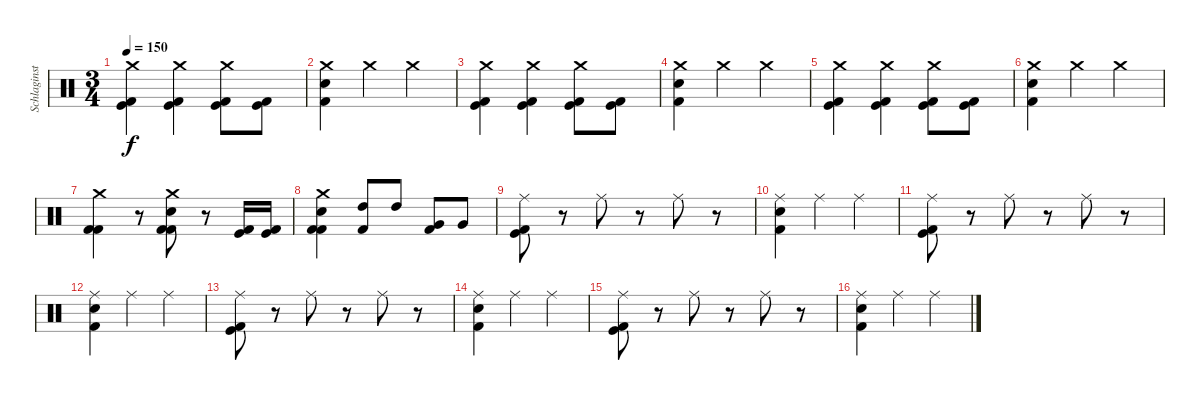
\track ("Schlaginstrumente - Auswahl" "Schlaginst") {instrument percussion}
\staff {score}
\articulation defaults
\ts (3 4)
\tempo 150
\clef neutral
\ks c
("Crash medium (hit)" "Kick (hit)" "Kick (hit) 2").4{dy f} ("Crash medium (hit)" "Kick (hit)" "Kick (hit) 2").4 ("Crash medium (hit)" "Kick (hit)" "Kick (hit) 2").8 ("Kick (hit)" "Kick (hit) 2").8 |
("Crash medium (hit)" "Electric Snare (hit)" "Kick (hit) 2").4 "Crash medium (hit)".4 "Crash medium (hit)".4 |
("Crash medium (hit)" "Kick (hit)" "Kick (hit) 2").4 ("Crash medium (hit)" "Kick (hit)" "Kick (hit) 2").4 ("Crash medium (hit)" "Kick (hit)" "Kick (hit) 2").8 ("Kick (hit)" "Kick (hit) 2").8 |
("Crash medium (hit)" "Electric Snare (hit)" "Kick (hit) 2").4 "Crash medium (hit)".4 "Crash medium (hit)".4 |
("Crash medium (hit)" "Kick (hit)" "Kick (hit) 2").4 ("Crash medium (hit)" "Kick (hit)" "Kick (hit) 2").4 ("Crash medium (hit)" "Kick (hit)" "Kick (hit) 2").8 ("Kick (hit)" "Kick (hit) 2").8 |
("Crash medium (hit)" "Electric Snare (hit)" "Kick (hit) 2").4 "Crash medium (hit)".4 "Crash medium (hit)".4 |
("Crash medium (hit)" "Kick (hit) 2" "Kick (hit) 2").4 r.8 ("Crash medium (hit)" "Electric Snare (hit)" "Kick (hit) 2" "Kick (hit) 2").8 r.8 ("Kick (hit)" "Kick (hit) 2").16 ("Kick (hit)" "Kick (hit) 2").16 |
("Crash medium (hit)" "Electric Snare (hit)" "Kick (hit) 2" "Kick (hit) 2").4 ("High Tom (hit)" "Kick (hit) 2").8 "High Tom (hit)".8 ("Very Low Tom (hit)" "Kick (hit) 2").8 "Very Low Tom (hit)".8 |
("Ride (middle)" "Kick (hit)" "Kick (hit) 2").8 r.8 "Ride (middle)".8 r.8 "Ride (middle)".8 r.8 |
("Ride (middle)" "Electric Snare (hit)" "Kick (hit) 2").4 "Ride (middle)".4 "Ride (middle)".4 |
("Ride (middle)" "Kick (hit)" "Kick (hit) 2").8 r.8 "Ride (middle)".8 r.8 "Ride (middle)".8 r.8 |
("Ride (middle)" "Electric Snare (hit)" "Kick (hit) 2").4 "Ride (middle)".4 "Ride (middle)".4 |
("Ride (middle)" "Kick (hit)" "Kick (hit) 2").8 r.8 "Ride (middle)".8 r.8 "Ride (middle)".8 r.8 |
("Ride (middle)" "Electric Snare (hit)" "Kick (hit) 2").4 "Ride (middle)".4 "Ride (middle)".4 |
("Ride (middle)" "Kick (hit)" "Kick (hit) 2").8 r.8 "Ride (middle)".8 r.8 "Ride (middle)".8 r.8 |
("Ride (middle)" "Electric Snare (hit)" "Kick (hit) 2").4 "Ride (middle)".4 "Ride (middle)".4
